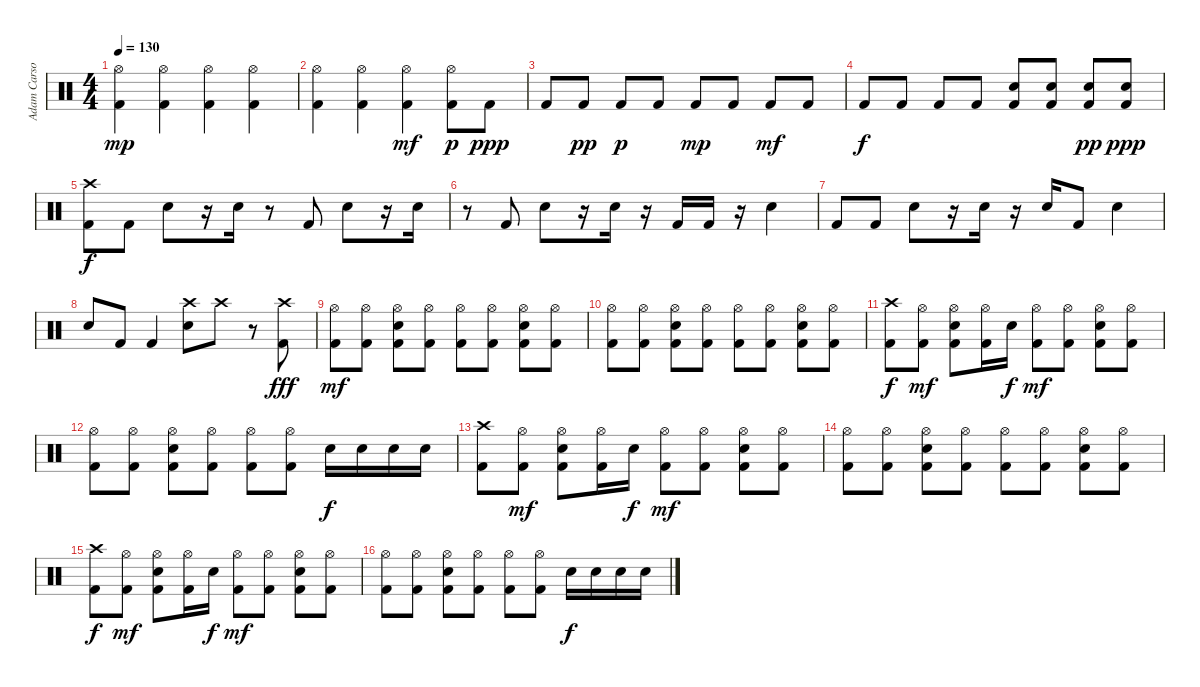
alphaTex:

\track ("Adam Carson" "Adam Carso") {instrument percussion}
\staff {score}
\articulation defaults
\ts (4 4)
\tempo 130
\clef neutral
\ks c
("Hi-Hat (open)" "Kick (hit) 2").4{dy mp} ("Hi-Hat (open)" "Kick (hit) 2").4 ("Hi-Hat (open)" "Kick (hit) 2").4 ("Hi-Hat (open)" "Kick (hit) 2").4 |
("Hi-Hat (open)" "Kick (hit) 2").4 ("Hi-Hat (open)" "Kick (hit) 2").4 ("Hi-Hat (open)" "Kick (hit) 2").4{dy mf} ("Hi-Hat (open)" "Kick (hit) 2").8{dy p} "Kick (hit) 2".8{dy ppp} |
"Kick (hit) 2".8 "Kick (hit) 2".8{dy pp} "Kick (hit) 2".8{dy p} "Kick (hit) 2".8 "Kick (hit) 2".8{dy mp} "Kick (hit) 2".8 "Kick (hit) 2".8{dy mf} "Kick (hit) 2".8 |
"Kick (hit) 2".8{dy f} "Kick (hit) 2".8 "Kick (hit) 2".8 "Kick (hit) 2".8 ("Electric Snare (hit)" "Kick (hit) 2").8 ("Electric Snare (hit)" "Kick (hit) 2").8 ("Electric Snare (hit)" "Kick (hit) 2").8{dy pp} ("Electric Snare (hit)" "Kick (hit) 2").8{dy ppp} |
("Crash high (hit)" "Kick (hit) 2").8{dy f} "Kick (hit) 2".8 "Electric Snare (hit)".8 r.16 "Electric Snare (hit)".16 r.8 "Kick (hit) 2".8 "Electric Snare (hit)".8 r.16 "Electric Snare (hit)".16 |
r.8 "Kick (hit) 2".8 "Electric Snare (hit)".8 r.16 "Electric Snare (hit)".16 r.16 "Kick (hit) 2".16 "Kick (hit) 2".16 r.16 "Electric Snare (hit)".4 |
"Kick (hit) 2".8 "Kick (hit) 2".8 "Electric Snare (hit)".8 r.16 "Electric Snare (hit)".16 r.16 "Electric Snare (hit)".16 "Kick (hit) 2".8 "Electric Snare (hit)".4 |
"Electric Snare (hit)".8 "Kick (hit) 2".8 "Kick (hit) 2".4 ("Crash high (hit)" "Electric Snare (hit)").8 "Crash high (hit)".8 r.8 ("Crash high (hit)" "Kick (hit) 2").8{dy fff} |
("Hi-Hat (open)" "Kick (hit) 2").8{dy mf} ("Hi-Hat (open)" "Kick (hit) 2").8 ("Hi-Hat (open)" "Electric Snare (hit)" "Kick (hit) 2").8 ("Hi-Hat (open)" "Kick (hit) 2").8 ("Hi-Hat (open)" "Kick (hit) 2").8 ("Hi-Hat (open)" "Kick (hit) 2").8 ("Hi-Hat (open)" "Electric Snare (hit)" "Kick (hit) 2").8 ("Hi-Hat (open)" "Kick (hit) 2").8 |
("Hi-Hat (open)" "Kick (hit) 2").8 ("Hi-Hat (open)" "Kick (hit) 2").8 ("Hi-Hat (open)" "Electric Snare (hit)" "Kick (hit) 2").8 ("Hi-Hat (open)" "Kick (hit) 2").8 ("Hi-Hat (open)" "Kick (hit) 2").8 ("Hi-Hat (open)" "Kick (hit) 2").8 ("Hi-Hat (open)" "Electric Snare (hit)" "Kick (hit) 2").8 ("Hi-Hat (open)" "Kick (hit) 2").8 |
("Crash high (hit)" "Kick (hit) 2").8{dy f} ("Hi-Hat (open)" "Kick (hit) 2").8{dy mf} ("Hi-Hat (open)" "Electric Snare (hit)" "Kick (hit) 2").8 ("Hi-Hat (open)" "Kick (hit) 2").16 "Electric Snare (hit)".16{dy f} ("Hi-Hat (open)" "Kick (hit) 2").8{dy mf} ("Hi-Hat (open)" "Kick (hit) 2").8 ("Hi-Hat (open)" "Electric Snare (hit)" "Kick (hit) 2").8 ("Hi-Hat (open)" "Kick (hit) 2").8 |
("Hi-Hat (open)" "Kick (hit) 2").8 ("Hi-Hat (open)" "Kick (hit) 2").8 ("Hi-Hat (open)" "Electric Snare (hit)" "Kick (hit) 2").8 ("Hi-Hat (open)" "Kick (hit) 2").8 ("Hi-Hat (open)" "Kick (hit) 2").8 ("Hi-Hat (open)" "Kick (hit) 2").8 "Electric Snare (hit)".16{dy f} "Electric Snare (hit)".16 "Electric Snare (hit)".16 "Electric Snare (hit)".16 |
("Crash high (hit)" "Kick (hit) 2").8 ("Hi-Hat (open)" "Kick (hit) 2").8{dy mf} ("Hi-Hat (open)" "Electric Snare (hit)" "Kick (hit) 2").8 ("Hi-Hat (open)" "Kick (hit) 2").16 "Electric Snare (hit)".16{dy f} ("Hi-Hat (open)" "Kick (hit) 2").8{dy mf} ("Hi-Hat (open)" "Kick (hit) 2").8 ("Hi-Hat (open)" "Electric Snare (hit)" "Kick (hit) 2").8 ("Hi-Hat (open)" "Kick (hit) 2").8 |
("Hi-Hat (open)" "Kick (hit) 2").8 ("Hi-Hat (open)" "Kick (hit) 2").8 ("Hi-Hat (open)" "Electric Snare (hit)" "Kick (hit) 2").8 ("Hi-Hat (open)" "Kick (hit) 2").8 ("Hi-Hat (open)" "Kick (hit) 2").8 ("Hi-Hat (open)" "Kick (hit) 2").8 ("Hi-Hat (open)" "Electric Snare (hit)" "Kick (hit) 2").8 ("Hi-Hat (open)" "Kick (hit) 2").8 |
("Crash high (hit)" "Kick (hit) 2").8{dy f} ("Hi-Hat (open)" "Kick (hit) 2").8{dy mf} ("Hi-Hat (open)" "Electric Snare (hit)" "Kick (hit) 2").8 ("Hi-Hat (open)" "Kick (hit) 2").16 "Electric Snare (hit)".16{dy f} ("Hi-Hat (open)" "Kick (hit) 2").8{dy mf} ("Hi-Hat (open)" "Kick (hit) 2").8 ("Hi-Hat (open)" "Electric Snare (hit)" "Kick (hit) 2").8 ("Hi-Hat (open)" "Kick (hit) 2").8 |
("Hi-Hat (open)" "Kick (hit) 2").8 ("Hi-Hat (open)" "Kick (hit) 2").8 ("Hi-Hat (open)" "Electric Snare (hit)" "Kick (hit) 2").8 ("Hi-Hat (open)" "Kick (hit) 2").8 ("Hi-Hat (open)" "Kick (hit) 2").8 ("Hi-Hat (open)" "Kick (hit) 2").8 "Electric Snare (hit)".16{dy f} "Electric Snare (hit)".16 "Electric Snare (hit)".16 "Electric Snare (hit)".16
